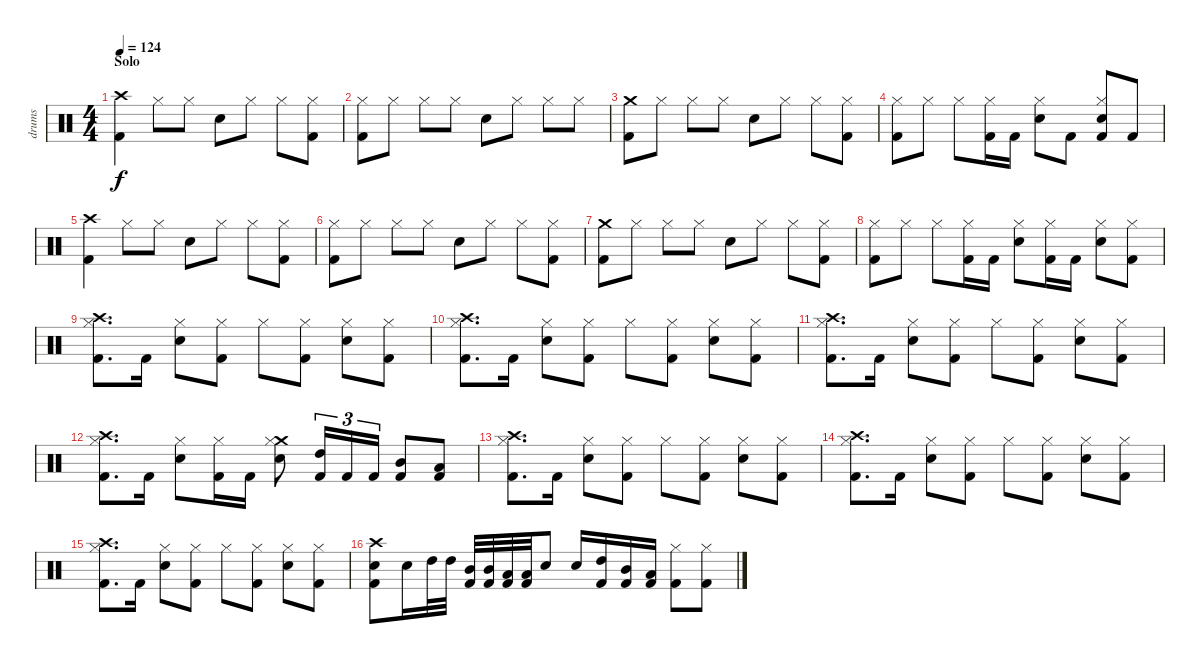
\track ("drums" "drums") {instrument percussion}
\staff {score}
\articulation defaults
\ts (4 4)
\section ("" "Solo")
\tempo 124
\clef neutral
\ks c
("Crash high (hit)" "Kick (hit) 2").4{dy f} "Hi-Hat (closed)".8 "Hi-Hat (closed)".8 "Snare (hit) 2".8 "Hi-Hat (closed)".8 "Hi-Hat (closed)".8 ("Hi-Hat (closed)" "Kick (hit) 2").8 |
("Hi-Hat (closed)" "Kick (hit) 2").8 "Hi-Hat (closed)".8 "Hi-Hat (closed)".8 "Hi-Hat (closed)".8 "Snare (hit) 2".8 "Hi-Hat (closed)".8 "Hi-Hat (closed)".8 "Hi-Hat (closed)".8 |
("Crash medium (hit)" "Kick (hit) 2").8 "Hi-Hat (closed)".8 "Hi-Hat (closed)".8 "Hi-Hat (closed)".8 "Snare (hit) 2".8 "Hi-Hat (closed)".8 "Hi-Hat (closed)".8 ("Hi-Hat (closed)" "Kick (hit) 2").8 |
("Hi-Hat (closed)" "Kick (hit) 2").8 "Hi-Hat (closed)".8 "Hi-Hat (closed)".8 ("Hi-Hat (closed)" "Kick (hit) 2").16 "Kick (hit) 2".16 ("Hi-Hat (closed)" "Snare (hit) 2").8 "Kick (hit) 2".8 ("Hi-Hat (closed)" "Snare (hit) 2" "Kick (hit) 2").8 "Kick (hit) 2".8 |
("Crash high (hit)" "Kick (hit) 2").4 "Hi-Hat (closed)".8 "Hi-Hat (closed)".8 "Snare (hit) 2".8 "Hi-Hat (closed)".8 "Hi-Hat (closed)".8 ("Hi-Hat (closed)" "Kick (hit) 2").8 |
("Hi-Hat (closed)" "Kick (hit) 2").8 "Hi-Hat (closed)".8 "Hi-Hat (closed)".8 "Hi-Hat (closed)".8 "Snare (hit) 2".8 "Hi-Hat (closed)".8 "Hi-Hat (closed)".8 ("Hi-Hat (closed)" "Kick (hit) 2").8 |
("Crash medium (hit)" "Kick (hit) 2").8 "Hi-Hat (closed)".8 "Hi-Hat (closed)".8 "Hi-Hat (closed)".8 "Snare (hit) 2".8 "Hi-Hat (closed)".8 "Hi-Hat (closed)".8 ("Hi-Hat (closed)" "Kick (hit) 2").8 |
("Hi-Hat (closed)" "Kick (hit) 2").8 "Hi-Hat (closed)".8 "Hi-Hat (closed)".8 ("Hi-Hat (closed)" "Kick (hit) 2").16 "Kick (hit) 2".16 ("Hi-Hat (closed)" "Snare (hit) 2").8 ("Hi-Hat (closed)" "Kick (hit) 2").16 "Kick (hit) 2".16 ("Hi-Hat (closed)" "Snare (hit) 2").8 ("Hi-Hat (closed)" "Kick (hit) 2").8 |
("Crash high (hit)" "Hi-Hat (closed)" "Kick (hit) 2").8{d} "Kick (hit) 2".16 ("Hi-Hat (closed)" "Snare (hit) 2").8 ("Hi-Hat (closed)" "Kick (hit) 2").8 "Hi-Hat (closed)".8 ("Hi-Hat (closed)" "Kick (hit) 2").8 ("Hi-Hat (closed)" "Snare (hit) 2").8 ("Hi-Hat (closed)" "Kick (hit) 2").8 |
("Crash high (hit)" "Hi-Hat (closed)" "Kick (hit) 2").8{d} "Kick (hit) 2".16 ("Hi-Hat (closed)" "Snare (hit) 2").8 ("Hi-Hat (closed)" "Kick (hit) 2").8 "Hi-Hat (closed)".8 ("Hi-Hat (closed)" "Kick (hit) 2").8 ("Hi-Hat (closed)" "Snare (hit) 2").8 ("Hi-Hat (closed)" "Kick (hit) 2").8 |
("Crash high (hit)" "Hi-Hat (closed)" "Kick (hit) 2").8{d} "Kick (hit) 2".16 ("Hi-Hat (closed)" "Snare (hit) 2").8 ("Hi-Hat (closed)" "Kick (hit) 2").8 "Hi-Hat (closed)".8 ("Hi-Hat (closed)" "Kick (hit) 2").8 ("Hi-Hat (closed)" "Snare (hit) 2").8 ("Hi-Hat (closed)" "Kick (hit) 2").8 |
("Crash high (hit)" "Hi-Hat (closed)" "Kick (hit) 2").8{d} "Kick (hit) 2".16 ("Hi-Hat (closed)" "Snare (hit) 2").8 ("Hi-Hat (closed)" "Kick (hit) 2").16 "Kick (hit) 2".16 ("Crash medium (hit)" "Hi-Hat (closed)" "Snare (hit) 2").8 ("High Tom (hit)" "Kick (hit) 2").16{tu (3 2)} "Kick (hit) 2".16{tu (3 2)} "Kick (hit) 2".16{tu (3 2)} ("Mid Tom (hit)" "Kick (hit) 2").8 ("Low Tom (hit)" "Kick (hit) 2").8 |
("Crash high (hit)" "Hi-Hat (closed)" "Kick (hit) 2").8{d} "Kick (hit) 2".16 ("Hi-Hat (closed)" "Snare (hit) 2").8 ("Hi-Hat (closed)" "Kick (hit) 2").8 "Hi-Hat (closed)".8 ("Hi-Hat (closed)" "Kick (hit) 2").8 ("Hi-Hat (closed)" "Snare (hit) 2").8 ("Hi-Hat (closed)" "Kick (hit) 2").8 |
("Crash high (hit)" "Hi-Hat (closed)" "Kick (hit) 2").8{d} "Kick (hit) 2".16 ("Hi-Hat (closed)" "Snare (hit) 2").8 ("Hi-Hat (closed)" "Kick (hit) 2").8 "Hi-Hat (closed)".8 ("Hi-Hat (closed)" "Kick (hit) 2").8 ("Hi-Hat (closed)" "Snare (hit) 2").8 ("Hi-Hat (closed)" "Kick (hit) 2").8 |
("Crash high (hit)" "Hi-Hat (closed)" "Kick (hit) 2").8{d} "Kick (hit) 2".16 ("Hi-Hat (closed)" "Snare (hit) 2").8 ("Hi-Hat (closed)" "Kick (hit) 2").8 "Hi-Hat (closed)".8 ("Hi-Hat (closed)" "Kick (hit) 2").8 ("Hi-Hat (closed)" "Snare (hit) 2").8 ("Hi-Hat (closed)" "Kick (hit) 2").8 |
("Crash high (hit)" "Snare (hit) 2" "Kick (hit) 2").8 "Snare (hit) 2".16 "High Tom (hit)".32 "High Tom (hit)".32 ("Mid Tom (hit)" "Kick (hit) 2").32 ("Mid Tom (hit)" "Kick (hit) 2").32 ("Low Tom (hit)" "Kick (hit) 2").32 ("Low Tom (hit)" "Kick (hit) 2").32 "Snare (hit) 2".8 "Snare (hit) 2".16 ("High Tom (hit)" "Kick (hit) 2").16 ("Mid Tom (hit)" "Kick (hit) 2").16 ("Low Tom (hit)" "Kick (hit) 2").16 ("Hi-Hat (closed)" "Kick (hit) 2").8 ("Hi-Hat (closed)" "Kick (hit) 2").8
